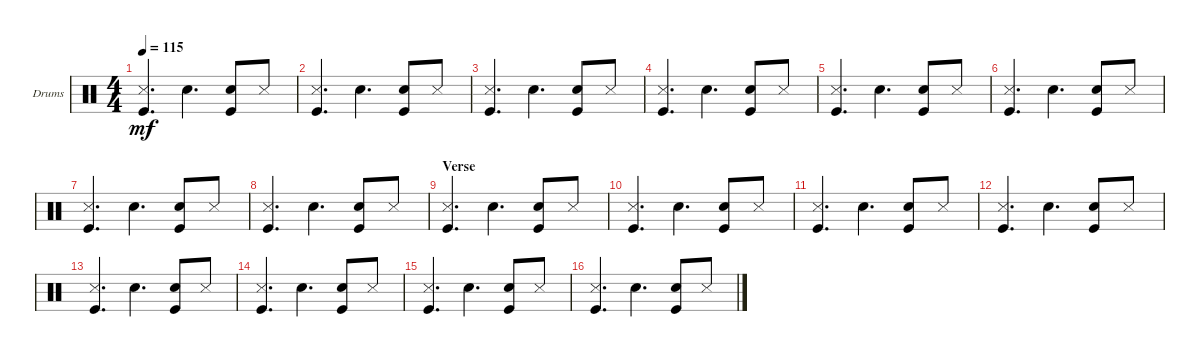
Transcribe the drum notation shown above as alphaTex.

\defaultSystemsLayout 4
\bracketExtendMode groupsimilarinstruments
\firstSystemTrackNameOrientation horizontal
\otherSystemsTrackNameOrientation horizontal
\track ("Drumkit" "Drums") {instrument percussion}
\staff {score}
\articulation defaults
\ts (4 4)
\tempo 115
\clef neutral
\ks c
("Snare (side stick) 3" "Kick (hit)").4{d dy mf} "Snare (hit) 2".4{d} ("Snare (hit) 2" "Kick (hit)").8 "Snare (side stick) 3".8 |
("Snare (side stick) 3" "Kick (hit)").4{d} "Snare (hit) 2".4{d} ("Snare (hit) 2" "Kick (hit)").8 "Snare (side stick) 3".8 |
("Snare (side stick) 3" "Kick (hit)").4{d} "Snare (hit) 2".4{d} ("Snare (hit) 2" "Kick (hit)").8 "Snare (side stick) 3".8 |
("Snare (side stick) 3" "Kick (hit)").4{d} "Snare (hit) 2".4{d} ("Snare (hit) 2" "Kick (hit)").8 "Snare (side stick) 3".8 |
("Snare (side stick) 3" "Kick (hit)").4{d} "Snare (hit) 2".4{d} ("Snare (hit) 2" "Kick (hit)").8 "Snare (side stick) 3".8 |
("Snare (side stick) 3" "Kick (hit)").4{d} "Snare (hit) 2".4{d} ("Snare (hit) 2" "Kick (hit)").8 "Snare (side stick) 3".8 |
("Snare (side stick) 3" "Kick (hit)").4{d} "Snare (hit) 2".4{d} ("Snare (hit) 2" "Kick (hit)").8 "Snare (side stick) 3".8 |
("Snare (side stick) 3" "Kick (hit)").4{d} "Snare (hit) 2".4{d} ("Snare (hit) 2" "Kick (hit)").8 "Snare (side stick) 3".8 |
\section ("" "Verse")
("Snare (side stick) 3" "Kick (hit)").4{d} "Snare (hit) 2".4{d} ("Snare (hit) 2" "Kick (hit)").8 "Snare (side stick) 3".8 |
("Snare (side stick) 3" "Kick (hit)").4{d} "Snare (hit) 2".4{d} ("Snare (hit) 2" "Kick (hit)").8 "Snare (side stick) 3".8 |
("Snare (side stick) 3" "Kick (hit)").4{d} "Snare (hit) 2".4{d} ("Snare (hit) 2" "Kick (hit)").8 "Snare (side stick) 3".8 |
("Snare (side stick) 3" "Kick (hit)").4{d} "Snare (hit) 2".4{d} ("Snare (hit) 2" "Kick (hit)").8 "Snare (side stick) 3".8 |
("Snare (side stick) 3" "Kick (hit)").4{d} "Snare (hit) 2".4{d} ("Snare (hit) 2" "Kick (hit)").8 "Snare (side stick) 3".8 |
("Snare (side stick) 3" "Kick (hit)").4{d} "Snare (hit) 2".4{d} ("Snare (hit) 2" "Kick (hit)").8 "Snare (side stick) 3".8 |
("Snare (side stick) 3" "Kick (hit)").4{d} "Snare (hit) 2".4{d} ("Snare (hit) 2" "Kick (hit)").8 "Snare (side stick) 3".8 |
("Snare (side stick) 3" "Kick (hit)").4{d} "Snare (hit) 2".4{d} ("Snare (hit) 2" "Kick (hit)").8 "Snare (side stick) 3".8
